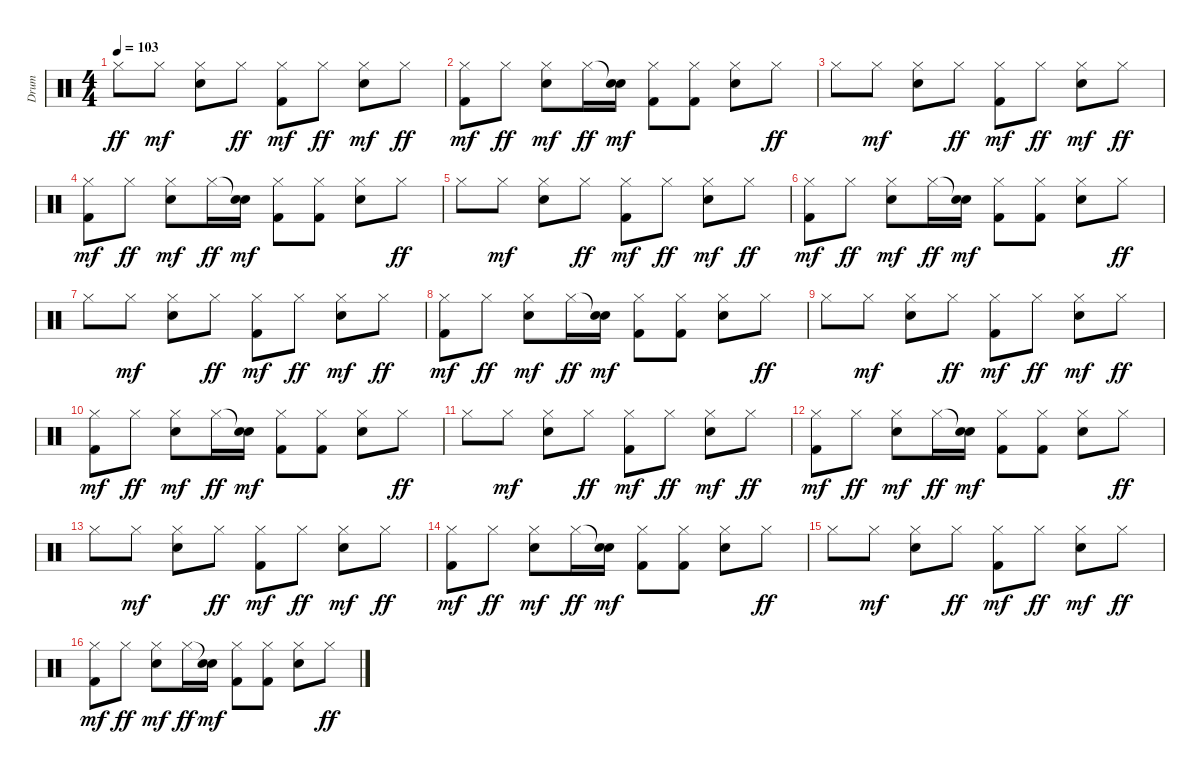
\track ("Drum" "Drum") {instrument percussion}
\staff {score}
\articulation defaults
\ts (4 4)
\tempo 103
\clef neutral
\ks c "Hi-Hat (closed)".8{dy ff} "Hi-Hat (closed)".8{dy mf}
("Hi-Hat (closed)" "Electric Snare (hit)").8 "Hi-Hat (closed)".8{dy ff} ("Hi-Hat (closed)" "Kick (hit) 2").8{dy mf} "Hi-Hat (closed)".8{dy ff} ("Hi-Hat (closed)" "Electric Snare (hit)").8{dy mf} "Hi-Hat (closed)".8{dy ff} |
("Hi-Hat (closed)" "Kick (hit) 2").8{dy mf} "Hi-Hat (closed)".8{dy ff} ("Hi-Hat (closed)" "Electric Snare (hit)").8{dy mf} "Hi-Hat (closed)".16{dy ff} ("Snare (hit)"{t} "Electric Snare (hit)").16{dy mf} ("Hi-Hat (closed)" "Kick (hit) 2").8 ("Hi-Hat (closed)" "Kick (hit) 2").8 ("Hi-Hat (closed)" "Electric Snare (hit)").8 "Hi-Hat (closed)".8{dy ff} |
"Hi-Hat (closed)".8 "Hi-Hat (closed)".8{dy mf} ("Hi-Hat (closed)" "Electric Snare (hit)").8 "Hi-Hat (closed)".8{dy ff} ("Hi-Hat (closed)" "Kick (hit) 2").8{dy mf} "Hi-Hat (closed)".8{dy ff} ("Hi-Hat (closed)" "Electric Snare (hit)").8{dy mf} "Hi-Hat (closed)".8{dy ff} |
("Hi-Hat (closed)" "Kick (hit) 2").8{dy mf} "Hi-Hat (closed)".8{dy ff} ("Hi-Hat (closed)" "Electric Snare (hit)").8{dy mf} "Hi-Hat (closed)".16{dy ff} ("Snare (hit)"{t} "Electric Snare (hit)").16{dy mf} ("Hi-Hat (closed)" "Kick (hit) 2").8 ("Hi-Hat (closed)" "Kick (hit) 2").8 ("Hi-Hat (closed)" "Electric Snare (hit)").8 "Hi-Hat (closed)".8{dy ff} |
"Hi-Hat (closed)".8 "Hi-Hat (closed)".8{dy mf} ("Hi-Hat (closed)" "Electric Snare (hit)").8 "Hi-Hat (closed)".8{dy ff} ("Hi-Hat (closed)" "Kick (hit) 2").8{dy mf} "Hi-Hat (closed)".8{dy ff} ("Hi-Hat (closed)" "Electric Snare (hit)").8{dy mf} "Hi-Hat (closed)".8{dy ff} |
("Hi-Hat (closed)" "Kick (hit) 2").8{dy mf} "Hi-Hat (closed)".8{dy ff} ("Hi-Hat (closed)" "Electric Snare (hit)").8{dy mf} "Hi-Hat (closed)".16{dy ff} ("Snare (hit)"{t} "Electric Snare (hit)").16{dy mf} ("Hi-Hat (closed)" "Kick (hit) 2").8 ("Hi-Hat (closed)" "Kick (hit) 2").8 ("Hi-Hat (closed)" "Electric Snare (hit)").8 "Hi-Hat (closed)".8{dy ff} |
"Hi-Hat (closed)".8 "Hi-Hat (closed)".8{dy mf} ("Hi-Hat (closed)" "Electric Snare (hit)").8 "Hi-Hat (closed)".8{dy ff} ("Hi-Hat (closed)" "Kick (hit) 2").8{dy mf} "Hi-Hat (closed)".8{dy ff} ("Hi-Hat (closed)" "Electric Snare (hit)").8{dy mf} "Hi-Hat (closed)".8{dy ff} |
("Hi-Hat (closed)" "Kick (hit) 2").8{dy mf} "Hi-Hat (closed)".8{dy ff} ("Hi-Hat (closed)" "Electric Snare (hit)").8{dy mf} "Hi-Hat (closed)".16{dy ff} ("Snare (hit)"{t} "Electric Snare (hit)").16{dy mf} ("Hi-Hat (closed)" "Kick (hit) 2").8 ("Hi-Hat (closed)" "Kick (hit) 2").8 ("Hi-Hat (closed)" "Electric Snare (hit)").8 "Hi-Hat (closed)".8{dy ff} |
"Hi-Hat (closed)".8 "Hi-Hat (closed)".8{dy mf} ("Hi-Hat (closed)" "Electric Snare (hit)").8 "Hi-Hat (closed)".8{dy ff} ("Hi-Hat (closed)" "Kick (hit) 2").8{dy mf} "Hi-Hat (closed)".8{dy ff} ("Hi-Hat (closed)" "Electric Snare (hit)").8{dy mf} "Hi-Hat (closed)".8{dy ff} |
("Hi-Hat (closed)" "Kick (hit) 2").8{dy mf} "Hi-Hat (closed)".8{dy ff} ("Hi-Hat (closed)" "Electric Snare (hit)").8{dy mf} "Hi-Hat (closed)".16{dy ff} ("Snare (hit)"{t} "Electric Snare (hit)").16{dy mf} ("Hi-Hat (closed)" "Kick (hit) 2").8 ("Hi-Hat (closed)" "Kick (hit) 2").8 ("Hi-Hat (closed)" "Electric Snare (hit)").8 "Hi-Hat (closed)".8{dy ff} |
"Hi-Hat (closed)".8 "Hi-Hat (closed)".8{dy mf} ("Hi-Hat (closed)" "Electric Snare (hit)").8 "Hi-Hat (closed)".8{dy ff} ("Hi-Hat (closed)" "Kick (hit) 2").8{dy mf} "Hi-Hat (closed)".8{dy ff} ("Hi-Hat (closed)" "Electric Snare (hit)").8{dy mf} "Hi-Hat (closed)".8{dy ff} |
("Hi-Hat (closed)" "Kick (hit) 2").8{dy mf} "Hi-Hat (closed)".8{dy ff} ("Hi-Hat (closed)" "Electric Snare (hit)").8{dy mf} "Hi-Hat (closed)".16{dy ff} ("Snare (hit)"{t} "Electric Snare (hit)").16{dy mf} ("Hi-Hat (closed)" "Kick (hit) 2").8 ("Hi-Hat (closed)" "Kick (hit) 2").8 ("Hi-Hat (closed)" "Electric Snare (hit)").8 "Hi-Hat (closed)".8{dy ff} |
"Hi-Hat (closed)".8 "Hi-Hat (closed)".8{dy mf} ("Hi-Hat (closed)" "Electric Snare (hit)").8 "Hi-Hat (closed)".8{dy ff} ("Hi-Hat (closed)" "Kick (hit) 2").8{dy mf} "Hi-Hat (closed)".8{dy ff} ("Hi-Hat (closed)" "Electric Snare (hit)").8{dy mf} "Hi-Hat (closed)".8{dy ff} |
("Hi-Hat (closed)" "Kick (hit) 2").8{dy mf} "Hi-Hat (closed)".8{dy ff} ("Hi-Hat (closed)" "Electric Snare (hit)").8{dy mf} "Hi-Hat (closed)".16{dy ff} ("Snare (hit)"{t} "Electric Snare (hit)").16{dy mf} ("Hi-Hat (closed)" "Kick (hit) 2").8 ("Hi-Hat (closed)" "Kick (hit) 2").8 ("Hi-Hat (closed)" "Electric Snare (hit)").8 "Hi-Hat (closed)".8{dy ff} |
"Hi-Hat (closed)".8 "Hi-Hat (closed)".8{dy mf} ("Hi-Hat (closed)" "Electric Snare (hit)").8 "Hi-Hat (closed)".8{dy ff} ("Hi-Hat (closed)" "Kick (hit) 2").8{dy mf} "Hi-Hat (closed)".8{dy ff} ("Hi-Hat (closed)" "Electric Snare (hit)").8{dy mf} "Hi-Hat (closed)".8{dy ff} |
("Hi-Hat (closed)" "Kick (hit) 2").8{dy mf} "Hi-Hat (closed)".8{dy ff} ("Hi-Hat (closed)" "Electric Snare (hit)").8{dy mf} "Hi-Hat (closed)".16{dy ff} ("Snare (hit)"{t} "Electric Snare (hit)").16{dy mf} ("Hi-Hat (closed)" "Kick (hit) 2").8 ("Hi-Hat (closed)" "Kick (hit) 2").8 ("Hi-Hat (closed)" "Electric Snare (hit)").8 "Hi-Hat (closed)".8{dy ff}
